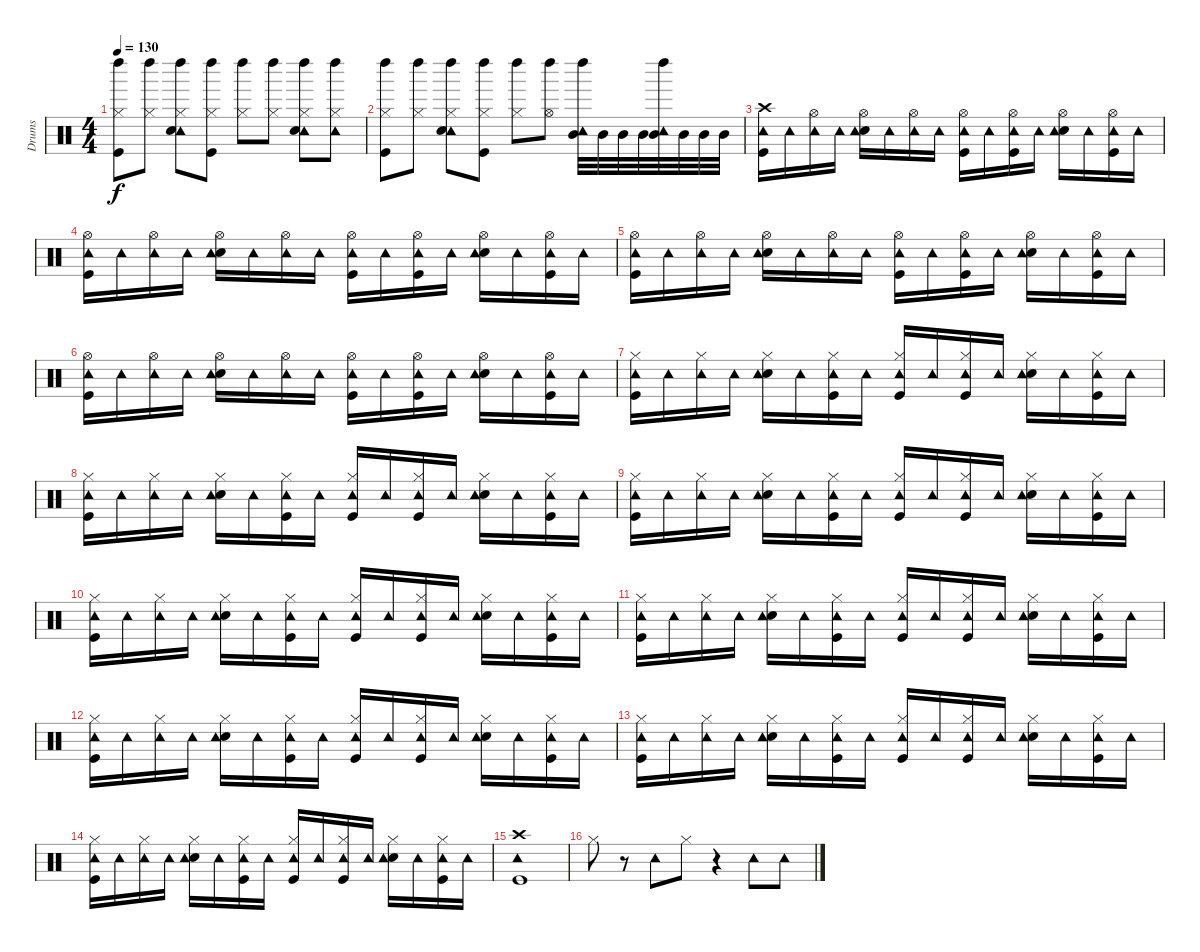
\track ("Drums" "Drums") {instrument percussion}
\staff {score}
\articulation defaults
\ts (4 4)
\tempo 130
\clef neutral
\ks c
("Left Maraca (hit)" "Kick (hit)" "Hi-Hat (closed)").8{dy f} ("Hi-Hat (closed)" "Left Maraca (hit)").8 ("Tambourine (hit)" "Hi-Hat (closed)" "Snare (hit) 2" "Left Maraca (hit)").8 ("Hi-Hat (closed)" "Kick (hit)" "Left Maraca (hit)").8 ("Hi-Hat (closed)" "Left Maraca (hit)").8 ("Hi-Hat (closed)" "Left Maraca (hit)").8 ("Tambourine (hit)" "Hi-Hat (closed)" "Snare (hit) 2" "Left Maraca (hit)").8 ("Tambourine (hit)" "Hi-Hat (closed)" "Left Maraca (hit)").8 |
("Left Maraca (hit)" "Kick (hit)" "Hi-Hat (closed)").8 ("Hi-Hat (closed)" "Left Maraca (hit)").8 ("Tambourine (hit)" "Hi-Hat (closed)" "Snare (hit) 2" "Left Maraca (hit)").8 ("Hi-Hat (closed)" "Kick (hit)" "Left Maraca (hit)").8 ("Left Maraca (hit)" "Hi-Hat (closed)").8 ("Left Maraca (hit)" "Hi-Hat (open)").8 ("Tambourine (hit)" "Left Maraca (hit)" "Mid Tom (hit)").32 "Mid Tom (hit)".32 "Mid Tom (hit)".32 "Mid Tom (hit)".32 ("Tambourine (hit)" "Left Maraca (hit)" "Mid Tom (hit)").32 "Mid Tom (hit)".32 "Mid Tom (hit)".32 "Mid Tom (hit)".32 |
("Crash high (hit)" "Kick (hit)" "Tambourine (hit)").16 "Tambourine (hit)".16 ("Hi-Hat (open)" "Tambourine (hit)").16 "Tambourine (hit)".16 ("Hi-Hat (open)" "Snare (hit) 2" "Tambourine (hit)").16 "Tambourine (hit)".16 ("Hi-Hat (open)" "Tambourine (hit)").16 "Tambourine (hit)".16 ("Hi-Hat (open)" "Kick (hit)" "Tambourine (hit)").16 "Tambourine (hit)".16 ("Hi-Hat (open)" "Kick (hit)" "Tambourine (hit)").16 "Tambourine (hit)".16 ("Hi-Hat (open)" "Snare (hit) 2" "Tambourine (hit)").16 "Tambourine (hit)".16 ("Hi-Hat (open)" "Kick (hit)" "Tambourine (hit)").16 "Tambourine (hit)".16 |
("Tambourine (hit)" "Kick (hit)" "Hi-Hat (open)").16 "Tambourine (hit)".16 ("Hi-Hat (open)" "Tambourine (hit)").16 "Tambourine (hit)".16 ("Hi-Hat (open)" "Snare (hit) 2" "Tambourine (hit)").16 "Tambourine (hit)".16 ("Hi-Hat (open)" "Tambourine (hit)").16 "Tambourine (hit)".16 ("Hi-Hat (open)" "Kick (hit)" "Tambourine (hit)").16 "Tambourine (hit)".16 ("Hi-Hat (open)" "Kick (hit)" "Tambourine (hit)").16 "Tambourine (hit)".16 ("Hi-Hat (open)" "Snare (hit) 2" "Tambourine (hit)").16 "Tambourine (hit)".16 ("Hi-Hat (open)" "Kick (hit)" "Tambourine (hit)").16 "Tambourine (hit)".16 |
("Hi-Hat (open)" "Kick (hit)" "Tambourine (hit)").16 "Tambourine (hit)".16 ("Hi-Hat (open)" "Tambourine (hit)").16 "Tambourine (hit)".16 ("Hi-Hat (open)" "Snare (hit) 2" "Tambourine (hit)").16 "Tambourine (hit)".16 ("Hi-Hat (open)" "Tambourine (hit)").16 "Tambourine (hit)".16 ("Hi-Hat (open)" "Kick (hit)" "Tambourine (hit)").16 "Tambourine (hit)".16 ("Hi-Hat (open)" "Kick (hit)" "Tambourine (hit)").16 "Tambourine (hit)".16 ("Hi-Hat (open)" "Snare (hit) 2" "Tambourine (hit)").16 "Tambourine (hit)".16 ("Hi-Hat (open)" "Kick (hit)" "Tambourine (hit)").16 "Tambourine (hit)".16 |
("Hi-Hat (open)" "Kick (hit)" "Tambourine (hit)").16 "Tambourine (hit)".16 ("Hi-Hat (open)" "Tambourine (hit)").16 "Tambourine (hit)".16 ("Hi-Hat (open)" "Snare (hit) 2" "Tambourine (hit)").16 "Tambourine (hit)".16 ("Hi-Hat (open)" "Tambourine (hit)").16 "Tambourine (hit)".16 ("Hi-Hat (open)" "Kick (hit)" "Tambourine (hit)").16 "Tambourine (hit)".16 ("Hi-Hat (open)" "Kick (hit)" "Tambourine (hit)").16 "Tambourine (hit)".16 ("Hi-Hat (open)" "Snare (hit) 2" "Tambourine (hit)").16 "Tambourine (hit)".16 ("Hi-Hat (open)" "Kick (hit)" "Tambourine (hit)").16 "Tambourine (hit)".16 |
("Hi-Hat (closed)" "Kick (hit)" "Tambourine (hit)").16 "Tambourine (hit)".16 ("Hi-Hat (closed)" "Tambourine (hit)").16 "Tambourine (hit)".16 ("Hi-Hat (closed)" "Snare (hit) 2" "Tambourine (hit)").16 "Tambourine (hit)".16 ("Hi-Hat (closed)" "Kick (hit)" "Tambourine (hit)").16 "Tambourine (hit)".16 ("Hi-Hat (closed)" "Kick (hit)" "Tambourine (hit)").16 "Tambourine (hit)".16 ("Hi-Hat (closed)" "Kick (hit)" "Tambourine (hit)").16 "Tambourine (hit)".16 ("Hi-Hat (closed)" "Snare (hit) 2" "Tambourine (hit)").16 "Tambourine (hit)".16 ("Hi-Hat (closed)" "Kick (hit)" "Tambourine (hit)").16 "Tambourine (hit)".16 |
("Tambourine (hit)" "Kick (hit)" "Hi-Hat (closed)").16 "Tambourine (hit)".16 ("Hi-Hat (closed)" "Tambourine (hit)").16 "Tambourine (hit)".16 ("Hi-Hat (closed)" "Snare (hit) 2" "Tambourine (hit)").16 "Tambourine (hit)".16 ("Hi-Hat (closed)" "Kick (hit)" "Tambourine (hit)").16 "Tambourine (hit)".16 ("Hi-Hat (closed)" "Kick (hit)" "Tambourine (hit)").16 "Tambourine (hit)".16 ("Hi-Hat (closed)" "Kick (hit)" "Tambourine (hit)").16 "Tambourine (hit)".16 ("Hi-Hat (closed)" "Snare (hit) 2" "Tambourine (hit)").16 "Tambourine (hit)".16 ("Hi-Hat (closed)" "Kick (hit)" "Tambourine (hit)").16 "Tambourine (hit)".16 |
("Tambourine (hit)" "Kick (hit)" "Hi-Hat (closed)").16 "Tambourine (hit)".16 ("Hi-Hat (closed)" "Tambourine (hit)").16 "Tambourine (hit)".16 ("Hi-Hat (closed)" "Snare (hit) 2" "Tambourine (hit)").16 "Tambourine (hit)".16 ("Hi-Hat (closed)" "Kick (hit)" "Tambourine (hit)").16 "Tambourine (hit)".16 ("Hi-Hat (closed)" "Kick (hit)" "Tambourine (hit)").16 "Tambourine (hit)".16 ("Hi-Hat (closed)" "Kick (hit)" "Tambourine (hit)").16 "Tambourine (hit)".16 ("Hi-Hat (closed)" "Snare (hit) 2" "Tambourine (hit)").16 "Tambourine (hit)".16 ("Hi-Hat (closed)" "Kick (hit)" "Tambourine (hit)").16 "Tambourine (hit)".16 |
("Tambourine (hit)" "Kick (hit)" "Hi-Hat (closed)").16 "Tambourine (hit)".16 ("Hi-Hat (closed)" "Tambourine (hit)").16 "Tambourine (hit)".16 ("Hi-Hat (closed)" "Snare (hit) 2" "Tambourine (hit)").16 "Tambourine (hit)".16 ("Hi-Hat (closed)" "Kick (hit)" "Tambourine (hit)").16 "Tambourine (hit)".16 ("Hi-Hat (closed)" "Kick (hit)" "Tambourine (hit)").16 "Tambourine (hit)".16 ("Hi-Hat (closed)" "Kick (hit)" "Tambourine (hit)").16 "Tambourine (hit)".16 ("Hi-Hat (closed)" "Snare (hit) 2" "Tambourine (hit)").16 "Tambourine (hit)".16 ("Hi-Hat (closed)" "Kick (hit)" "Tambourine (hit)").16 "Tambourine (hit)".16 |
("Tambourine (hit)" "Kick (hit)" "Hi-Hat (closed)").16 "Tambourine (hit)".16 ("Hi-Hat (closed)" "Tambourine (hit)").16 "Tambourine (hit)".16 ("Hi-Hat (closed)" "Snare (hit) 2" "Tambourine (hit)").16 "Tambourine (hit)".16 ("Hi-Hat (closed)" "Kick (hit)" "Tambourine (hit)").16 "Tambourine (hit)".16 ("Hi-Hat (closed)" "Kick (hit)" "Tambourine (hit)").16 "Tambourine (hit)".16 ("Hi-Hat (closed)" "Kick (hit)" "Tambourine (hit)").16 "Tambourine (hit)".16 ("Hi-Hat (closed)" "Snare (hit) 2" "Tambourine (hit)").16 "Tambourine (hit)".16 ("Hi-Hat (closed)" "Kick (hit)" "Tambourine (hit)").16 "Tambourine (hit)".16 |
("Tambourine (hit)" "Kick (hit)" "Hi-Hat (closed)").16 "Tambourine (hit)".16 ("Hi-Hat (closed)" "Tambourine (hit)").16 "Tambourine (hit)".16 ("Hi-Hat (closed)" "Snare (hit) 2" "Tambourine (hit)").16 "Tambourine (hit)".16 ("Hi-Hat (closed)" "Kick (hit)" "Tambourine (hit)").16 "Tambourine (hit)".16 ("Hi-Hat (closed)" "Kick (hit)" "Tambourine (hit)").16 "Tambourine (hit)".16 ("Hi-Hat (closed)" "Kick (hit)" "Tambourine (hit)").16 "Tambourine (hit)".16 ("Hi-Hat (closed)" "Snare (hit) 2" "Tambourine (hit)").16 "Tambourine (hit)".16 ("Hi-Hat (closed)" "Kick (hit)" "Tambourine (hit)").16 "Tambourine (hit)".16 |
("Tambourine (hit)" "Kick (hit)" "Hi-Hat (closed)").16 "Tambourine (hit)".16 ("Hi-Hat (closed)" "Tambourine (hit)").16 "Tambourine (hit)".16 ("Hi-Hat (closed)" "Snare (hit) 2" "Tambourine (hit)").16 "Tambourine (hit)".16 ("Hi-Hat (closed)" "Kick (hit)" "Tambourine (hit)").16 "Tambourine (hit)".16 ("Hi-Hat (closed)" "Kick (hit)" "Tambourine (hit)").16 "Tambourine (hit)".16 ("Hi-Hat (closed)" "Kick (hit)" "Tambourine (hit)").16 "Tambourine (hit)".16 ("Hi-Hat (closed)" "Snare (hit) 2" "Tambourine (hit)").16 "Tambourine (hit)".16 ("Hi-Hat (closed)" "Kick (hit)" "Tambourine (hit)").16 "Tambourine (hit)".16 |
("Tambourine (hit)" "Kick (hit)" "Hi-Hat (closed)").16 "Tambourine (hit)".16 ("Hi-Hat (closed)" "Tambourine (hit)").16 "Tambourine (hit)".16 ("Hi-Hat (closed)" "Snare (hit) 2" "Tambourine (hit)").16 "Tambourine (hit)".16 ("Hi-Hat (closed)" "Kick (hit)" "Tambourine (hit)").16 "Tambourine (hit)".16 ("Hi-Hat (closed)" "Kick (hit)" "Tambourine (hit)").16 "Tambourine (hit)".16 ("Hi-Hat (closed)" "Kick (hit)" "Tambourine (hit)").16 "Tambourine (hit)".16 ("Hi-Hat (closed)" "Snare (hit) 2" "Tambourine (hit)").16 "Tambourine (hit)".16 ("Hi-Hat (closed)" "Kick (hit)" "Tambourine (hit)").16 "Tambourine (hit)".16 |
("Crash high (hit)" "Kick (hit)" "Tambourine (hit)").1 |
"Hi-Hat (closed)".8 r.8 "Tambourine (hit)".8 "Hi-Hat (closed)".8 r.4 "Tambourine (hit)".8 "Tambourine (hit)".8
